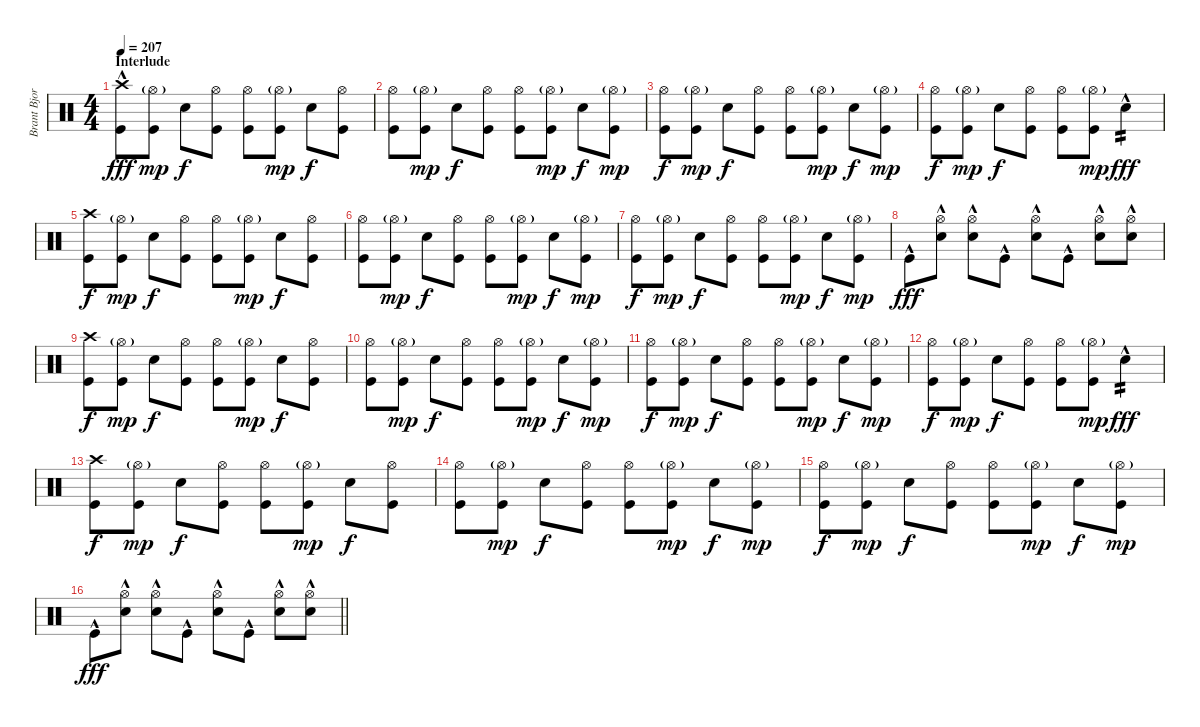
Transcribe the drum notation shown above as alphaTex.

\track ("Brant Bjork - Drums" "Brant Bjor") {instrument percussion}
\staff {score}
\articulation defaults
\ts (4 4)
\section ("" "Interlude")
\tempo 207
\clef neutral
\ks c
("Crash high (hit)"{hac} "Kick (hit)").8{dy fff} ("Hi-Hat (open)"{g} "Kick (hit)").8{dy mp} "Snare (hit) 2".8{dy f} ("Hi-Hat (open)" "Kick (hit)").8 ("Hi-Hat (open)" "Kick (hit)").8 ("Hi-Hat (open)"{g} "Kick (hit)").8{dy mp} "Snare (hit) 2".8{dy f} ("Hi-Hat (open)" "Kick (hit)").8 |
("Hi-Hat (open)" "Kick (hit)").8 ("Hi-Hat (open)"{g} "Kick (hit)").8{dy mp} "Snare (hit) 2".8{dy f} ("Hi-Hat (open)" "Kick (hit)").8 ("Hi-Hat (open)" "Kick (hit)").8 ("Hi-Hat (open)"{g} "Kick (hit)").8{dy mp} "Snare (hit) 2".8{dy f} ("Hi-Hat (open)"{g} "Kick (hit)").8{dy mp} |
("Hi-Hat (open)" "Kick (hit)").8{dy f} ("Hi-Hat (open)"{g} "Kick (hit)").8{dy mp} "Snare (hit) 2".8{dy f} ("Hi-Hat (open)" "Kick (hit)").8 ("Hi-Hat (open)" "Kick (hit)").8 ("Hi-Hat (open)"{g} "Kick (hit)").8{dy mp} "Snare (hit) 2".8{dy f} ("Hi-Hat (open)"{g} "Kick (hit)").8{dy mp} |
("Hi-Hat (open)" "Kick (hit)").8{dy f} ("Hi-Hat (open)"{g} "Kick (hit)").8{dy mp} "Snare (hit) 2".8{dy f} ("Hi-Hat (open)" "Kick (hit)").8 ("Hi-Hat (open)" "Kick (hit)").8 ("Hi-Hat (open)"{g} "Kick (hit)").8{dy mp} "Snare (hit) 2"{hac}.4{tp 2 dy fff} |
("Crash high (hit)" "Kick (hit)").8{dy f} ("Hi-Hat (open)"{g} "Kick (hit)").8{dy mp} "Snare (hit) 2".8{dy f} ("Hi-Hat (open)" "Kick (hit)").8 ("Hi-Hat (open)" "Kick (hit)").8 ("Hi-Hat (open)"{g} "Kick (hit)").8{dy mp} "Snare (hit) 2".8{dy f} ("Hi-Hat (open)" "Kick (hit)").8 |
("Hi-Hat (open)" "Kick (hit)").8 ("Hi-Hat (open)"{g} "Kick (hit)").8{dy mp} "Snare (hit) 2".8{dy f} ("Hi-Hat (open)" "Kick (hit)").8 ("Hi-Hat (open)" "Kick (hit)").8 ("Hi-Hat (open)"{g} "Kick (hit)").8{dy mp} "Snare (hit) 2".8{dy f} ("Hi-Hat (open)"{g} "Kick (hit)").8{dy mp} |
("Hi-Hat (open)" "Kick (hit)").8{dy f} ("Hi-Hat (open)"{g} "Kick (hit)").8{dy mp} "Snare (hit) 2".8{dy f} ("Hi-Hat (open)" "Kick (hit)").8 ("Hi-Hat (open)" "Kick (hit)").8 ("Hi-Hat (open)"{g} "Kick (hit)").8{dy mp} "Snare (hit) 2".8{dy f} ("Hi-Hat (open)"{g} "Kick (hit)").8{dy mp} |
"Kick (hit)"{hac}.8{dy fff} ("Hi-Hat (open)" "Snare (hit) 2"{hac}).8 ("Hi-Hat (open)" "Snare (hit) 2"{hac}).8 "Kick (hit)"{hac}.8 ("Hi-Hat (open)" "Snare (hit) 2"{hac}).8 "Kick (hit)"{hac}.8 ("Hi-Hat (open)" "Snare (hit) 2"{hac}).8 ("Hi-Hat (open)" "Snare (hit) 2"{hac}).8 |
("Crash high (hit)" "Kick (hit)").8{dy f} ("Hi-Hat (open)"{g} "Kick (hit)").8{dy mp} "Snare (hit) 2".8{dy f} ("Hi-Hat (open)" "Kick (hit)").8 ("Hi-Hat (open)" "Kick (hit)").8 ("Hi-Hat (open)"{g} "Kick (hit)").8{dy mp} "Snare (hit) 2".8{dy f} ("Hi-Hat (open)" "Kick (hit)").8 |
("Hi-Hat (open)" "Kick (hit)").8 ("Hi-Hat (open)"{g} "Kick (hit)").8{dy mp} "Snare (hit) 2".8{dy f} ("Hi-Hat (open)" "Kick (hit)").8 ("Hi-Hat (open)" "Kick (hit)").8 ("Hi-Hat (open)"{g} "Kick (hit)").8{dy mp} "Snare (hit) 2".8{dy f} ("Hi-Hat (open)"{g} "Kick (hit)").8{dy mp} |
("Hi-Hat (open)" "Kick (hit)").8{dy f} ("Hi-Hat (open)"{g} "Kick (hit)").8{dy mp} "Snare (hit) 2".8{dy f} ("Hi-Hat (open)" "Kick (hit)").8 ("Hi-Hat (open)" "Kick (hit)").8 ("Hi-Hat (open)"{g} "Kick (hit)").8{dy mp} "Snare (hit) 2".8{dy f} ("Hi-Hat (open)"{g} "Kick (hit)").8{dy mp} |
("Hi-Hat (open)" "Kick (hit)").8{dy f} ("Hi-Hat (open)"{g} "Kick (hit)").8{dy mp} "Snare (hit) 2".8{dy f} ("Hi-Hat (open)" "Kick (hit)").8 ("Hi-Hat (open)" "Kick (hit)").8 ("Hi-Hat (open)"{g} "Kick (hit)").8{dy mp} "Snare (hit) 2"{hac}.4{tp 2 dy fff} |
("Crash high (hit)" "Kick (hit)").8{dy f} ("Hi-Hat (open)"{g} "Kick (hit)").8{dy mp} "Snare (hit) 2".8{dy f} ("Hi-Hat (open)" "Kick (hit)").8 ("Hi-Hat (open)" "Kick (hit)").8 ("Hi-Hat (open)"{g} "Kick (hit)").8{dy mp} "Snare (hit) 2".8{dy f} ("Hi-Hat (open)" "Kick (hit)").8 |
("Hi-Hat (open)" "Kick (hit)").8 ("Hi-Hat (open)"{g} "Kick (hit)").8{dy mp} "Snare (hit) 2".8{dy f} ("Hi-Hat (open)" "Kick (hit)").8 ("Hi-Hat (open)" "Kick (hit)").8 ("Hi-Hat (open)"{g} "Kick (hit)").8{dy mp} "Snare (hit) 2".8{dy f} ("Hi-Hat (open)"{g} "Kick (hit)").8{dy mp} |
("Hi-Hat (open)" "Kick (hit)").8{dy f} ("Hi-Hat (open)"{g} "Kick (hit)").8{dy mp} "Snare (hit) 2".8{dy f} ("Hi-Hat (open)" "Kick (hit)").8 ("Hi-Hat (open)" "Kick (hit)").8 ("Hi-Hat (open)"{g} "Kick (hit)").8{dy mp} "Snare (hit) 2".8{dy f} ("Hi-Hat (open)"{g} "Kick (hit)").8{dy mp} |
\barLineRight lightlight "Kick (hit)"{hac}.8{dy fff}
("Hi-Hat (open)" "Snare (hit) 2"{hac}).8 ("Hi-Hat (open)" "Snare (hit) 2"{hac}).8 "Kick (hit)"{hac}.8 ("Hi-Hat (open)" "Snare (hit) 2"{hac}).8 "Kick (hit)"{hac}.8 ("Hi-Hat (open)" "Snare (hit) 2"{hac}).8 ("Hi-Hat (open)" "Snare (hit) 2"{hac}).8
